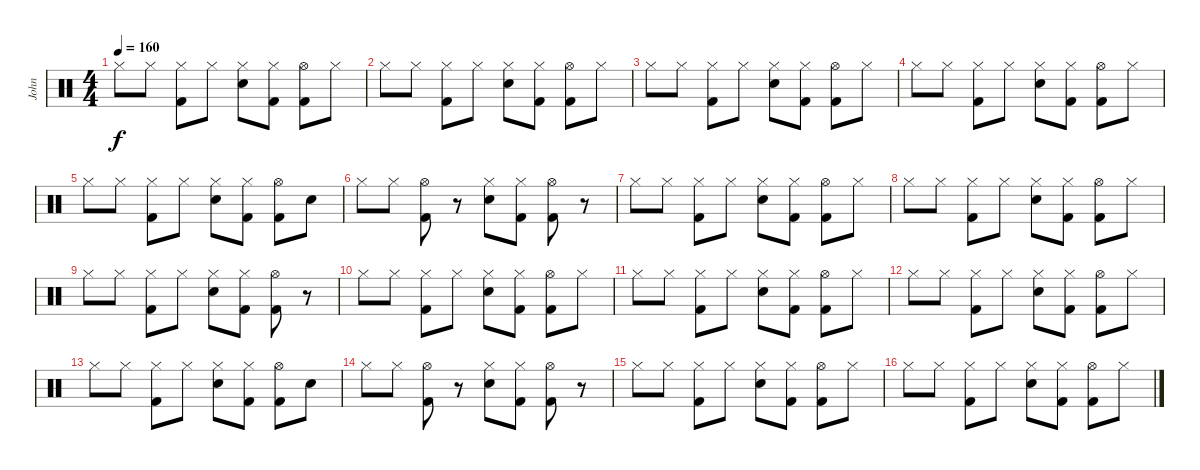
\track ("John" "John") {instrument percussion}
\staff {score}
\articulation defaults
\ts (4 4)
\tempo 160
\clef neutral
\ks c "Hi-Hat (closed)".8{dy f} "Hi-Hat (closed)".8
("Hi-Hat (closed)" "Kick (hit) 2").8 "Hi-Hat (closed)".8 ("Hi-Hat (closed)" "Snare (hit) 2").8 ("Hi-Hat (closed)" "Kick (hit) 2").8 ("Hi-Hat (open)" "Kick (hit) 2").8 "Hi-Hat (closed)".8 |
"Hi-Hat (closed)".8 "Hi-Hat (closed)".8 ("Hi-Hat (closed)" "Kick (hit) 2").8 "Hi-Hat (closed)".8 ("Hi-Hat (closed)" "Snare (hit) 2").8 ("Hi-Hat (closed)" "Kick (hit) 2").8 ("Hi-Hat (open)" "Kick (hit) 2").8 "Hi-Hat (closed)".8 |
"Hi-Hat (closed)".8 "Hi-Hat (closed)".8 ("Hi-Hat (closed)" "Kick (hit) 2").8 "Hi-Hat (closed)".8 ("Hi-Hat (closed)" "Snare (hit) 2").8 ("Hi-Hat (closed)" "Kick (hit) 2").8 ("Hi-Hat (open)" "Kick (hit) 2").8 "Hi-Hat (closed)".8 |
"Hi-Hat (closed)".8 "Hi-Hat (closed)".8 ("Hi-Hat (closed)" "Kick (hit) 2").8 "Hi-Hat (closed)".8 ("Hi-Hat (closed)" "Snare (hit) 2").8 ("Hi-Hat (closed)" "Kick (hit) 2").8 ("Hi-Hat (open)" "Kick (hit) 2").8 "Hi-Hat (closed)".8 |
"Hi-Hat (closed)".8 "Hi-Hat (closed)".8 ("Hi-Hat (closed)" "Kick (hit) 2").8 "Hi-Hat (closed)".8 ("Hi-Hat (closed)" "Snare (hit) 2").8 ("Hi-Hat (closed)" "Kick (hit) 2").8 ("Hi-Hat (open)" "Kick (hit) 2").8 "Snare (hit) 2".8 |
"Hi-Hat (closed)".8 "Hi-Hat (closed)".8 ("Hi-Hat (open)" "Kick (hit) 2").8 r.8 ("Hi-Hat (closed)" "Snare (hit) 2").8 ("Hi-Hat (closed)" "Kick (hit) 2").8 ("Hi-Hat (open)" "Kick (hit) 2").8 r.8 |
"Hi-Hat (closed)".8 "Hi-Hat (closed)".8 ("Hi-Hat (closed)" "Kick (hit) 2").8 "Hi-Hat (closed)".8 ("Hi-Hat (closed)" "Snare (hit) 2").8 ("Hi-Hat (closed)" "Kick (hit) 2").8 ("Hi-Hat (open)" "Kick (hit) 2").8 "Hi-Hat (closed)".8 |
"Hi-Hat (closed)".8 "Hi-Hat (closed)".8 ("Hi-Hat (closed)" "Kick (hit) 2").8 "Hi-Hat (closed)".8 ("Hi-Hat (closed)" "Snare (hit) 2").8 ("Hi-Hat (closed)" "Kick (hit) 2").8 ("Hi-Hat (open)" "Kick (hit) 2").8 "Hi-Hat (closed)".8 |
"Hi-Hat (closed)".8 "Hi-Hat (closed)".8 ("Hi-Hat (closed)" "Kick (hit) 2").8 "Hi-Hat (closed)".8 ("Hi-Hat (closed)" "Snare (hit) 2").8 ("Hi-Hat (closed)" "Kick (hit) 2").8 ("Hi-Hat (open)" "Kick (hit) 2").8 r.8 |
"Hi-Hat (closed)".8 "Hi-Hat (closed)".8 ("Hi-Hat (closed)" "Kick (hit) 2").8 "Hi-Hat (closed)".8 ("Hi-Hat (closed)" "Snare (hit) 2").8 ("Hi-Hat (closed)" "Kick (hit) 2").8 ("Hi-Hat (open)" "Kick (hit) 2").8 "Hi-Hat (closed)".8 |
"Hi-Hat (closed)".8 "Hi-Hat (closed)".8 ("Hi-Hat (closed)" "Kick (hit) 2").8 "Hi-Hat (closed)".8 ("Hi-Hat (closed)" "Snare (hit) 2").8 ("Hi-Hat (closed)" "Kick (hit) 2").8 ("Hi-Hat (open)" "Kick (hit) 2").8 "Hi-Hat (closed)".8 |
"Hi-Hat (closed)".8 "Hi-Hat (closed)".8 ("Hi-Hat (closed)" "Kick (hit) 2").8 "Hi-Hat (closed)".8 ("Hi-Hat (closed)" "Snare (hit) 2").8 ("Hi-Hat (closed)" "Kick (hit) 2").8 ("Hi-Hat (open)" "Kick (hit) 2").8 "Hi-Hat (closed)".8 |
"Hi-Hat (closed)".8 "Hi-Hat (closed)".8 ("Hi-Hat (closed)" "Kick (hit) 2").8 "Hi-Hat (closed)".8 ("Hi-Hat (closed)" "Snare (hit) 2").8 ("Hi-Hat (closed)" "Kick (hit) 2").8 ("Hi-Hat (open)" "Kick (hit) 2").8 "Snare (hit) 2".8 |
"Hi-Hat (closed)".8 "Hi-Hat (closed)".8 ("Hi-Hat (open)" "Kick (hit) 2").8 r.8 ("Hi-Hat (closed)" "Snare (hit) 2").8 ("Hi-Hat (closed)" "Kick (hit) 2").8 ("Hi-Hat (open)" "Kick (hit) 2").8 r.8 |
"Hi-Hat (closed)".8 "Hi-Hat (closed)".8 ("Hi-Hat (closed)" "Kick (hit) 2").8 "Hi-Hat (closed)".8 ("Hi-Hat (closed)" "Snare (hit) 2").8 ("Hi-Hat (closed)" "Kick (hit) 2").8 ("Hi-Hat (open)" "Kick (hit) 2").8 "Hi-Hat (closed)".8 |
"Hi-Hat (closed)".8 "Hi-Hat (closed)".8 ("Hi-Hat (closed)" "Kick (hit) 2").8 "Hi-Hat (closed)".8 ("Hi-Hat (closed)" "Snare (hit) 2").8 ("Hi-Hat (closed)" "Kick (hit) 2").8 ("Hi-Hat (open)" "Kick (hit) 2").8 "Hi-Hat (closed)".8
